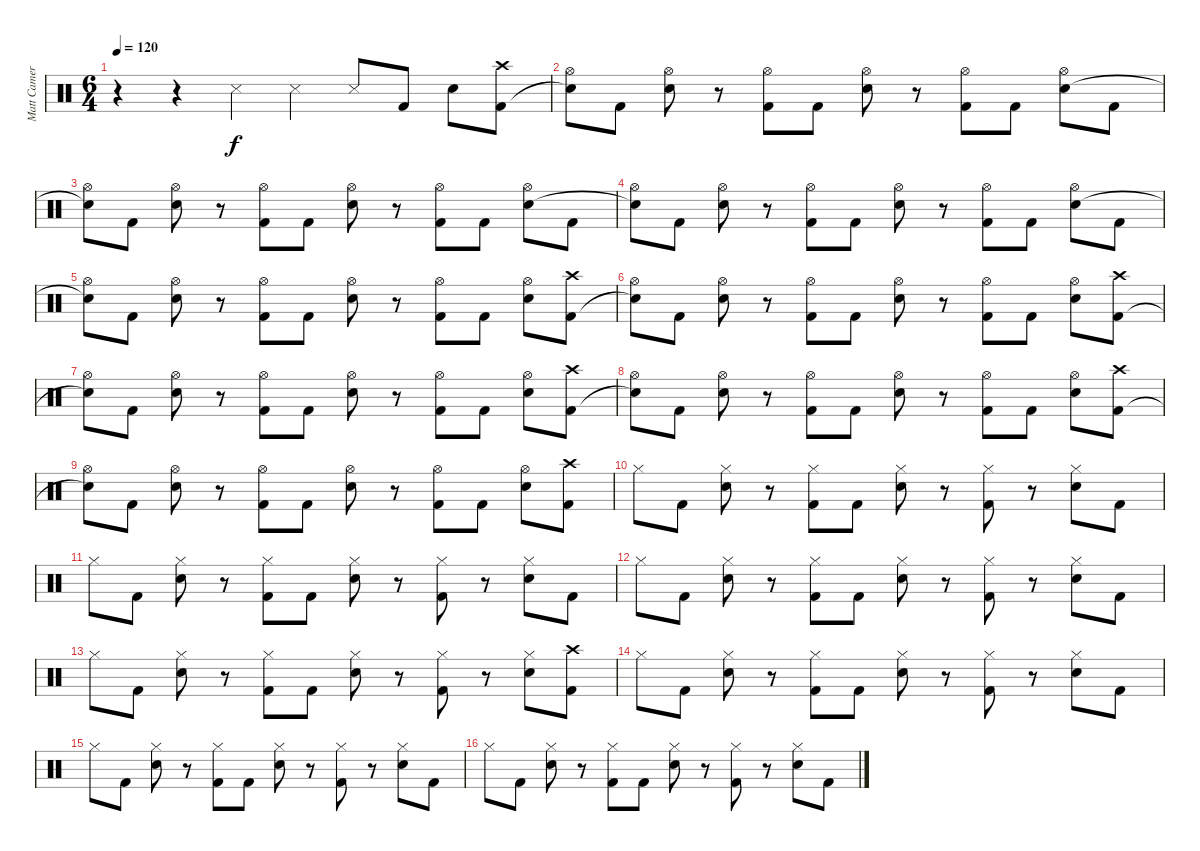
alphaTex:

\track ("Matt Cameron (Drums)" "Matt Camer") {instrument percussion}
\staff {score}
\articulation defaults
\ts (6 4)
\tempo 120
\clef neutral
\ks c
r.4{dy f} r.4 "Snare (side stick) 3".4 "Snare (side stick) 3".4 "Snare (side stick) 3".8 "Kick (hit) 2".8 "Electric Snare (hit)".8 ("Crash high (hit)" "Kick (hit) 2").8 |
("Hi-Hat (open)" "Snare (hit)"{t}).8 "Kick (hit) 2".8 ("Hi-Hat (open)" "Electric Snare (hit)").8 r.8 ("Hi-Hat (open)" "Kick (hit) 2").8 "Kick (hit) 2".8 ("Hi-Hat (open)" "Electric Snare (hit)").8 r.8 ("Hi-Hat (open)" "Kick (hit) 2").8 "Kick (hit) 2".8 ("Hi-Hat (open)" "Electric Snare (hit)").8 "Kick (hit) 2".8 |
("Hi-Hat (open)" "Snare (hit)"{t}).8 "Kick (hit) 2".8 ("Hi-Hat (open)" "Electric Snare (hit)").8 r.8 ("Hi-Hat (open)" "Kick (hit) 2").8 "Kick (hit) 2".8 ("Hi-Hat (open)" "Electric Snare (hit)").8 r.8 ("Hi-Hat (open)" "Kick (hit) 2").8 "Kick (hit) 2".8 ("Hi-Hat (open)" "Electric Snare (hit)").8 "Kick (hit) 2".8 |
("Hi-Hat (open)" "Snare (hit)"{t}).8 "Kick (hit) 2".8 ("Hi-Hat (open)" "Electric Snare (hit)").8 r.8 ("Hi-Hat (open)" "Kick (hit) 2").8 "Kick (hit) 2".8 ("Hi-Hat (open)" "Electric Snare (hit)").8 r.8 ("Hi-Hat (open)" "Kick (hit) 2").8 "Kick (hit) 2".8 ("Hi-Hat (open)" "Electric Snare (hit)").8 "Kick (hit) 2".8 |
("Hi-Hat (open)" "Snare (hit)"{t}).8 "Kick (hit) 2".8 ("Hi-Hat (open)" "Electric Snare (hit)").8 r.8 ("Hi-Hat (open)" "Kick (hit) 2").8 "Kick (hit) 2".8 ("Hi-Hat (open)" "Electric Snare (hit)").8 r.8 ("Hi-Hat (open)" "Kick (hit) 2").8 "Kick (hit) 2".8 ("Hi-Hat (open)" "Electric Snare (hit)").8 ("Crash high (hit)" "Kick (hit) 2").8 |
("Hi-Hat (open)" "Snare (hit)"{t}).8 "Kick (hit) 2".8 ("Hi-Hat (open)" "Electric Snare (hit)").8 r.8 ("Hi-Hat (open)" "Kick (hit) 2").8 "Kick (hit) 2".8 ("Hi-Hat (open)" "Electric Snare (hit)").8 r.8 ("Hi-Hat (open)" "Kick (hit) 2").8 "Kick (hit) 2".8 ("Hi-Hat (open)" "Electric Snare (hit)").8 ("Crash high (hit)" "Kick (hit) 2").8 |
("Hi-Hat (open)" "Snare (hit)"{t}).8 "Kick (hit) 2".8 ("Hi-Hat (open)" "Electric Snare (hit)").8 r.8 ("Hi-Hat (open)" "Kick (hit) 2").8 "Kick (hit) 2".8 ("Hi-Hat (open)" "Electric Snare (hit)").8 r.8 ("Hi-Hat (open)" "Kick (hit) 2").8 "Kick (hit) 2".8 ("Hi-Hat (open)" "Electric Snare (hit)").8 ("Crash high (hit)" "Kick (hit) 2").8 |
("Hi-Hat (open)" "Snare (hit)"{t}).8 "Kick (hit) 2".8 ("Hi-Hat (open)" "Electric Snare (hit)").8 r.8 ("Hi-Hat (open)" "Kick (hit) 2").8 "Kick (hit) 2".8 ("Hi-Hat (open)" "Electric Snare (hit)").8 r.8 ("Hi-Hat (open)" "Kick (hit) 2").8 "Kick (hit) 2".8 ("Hi-Hat (open)" "Electric Snare (hit)").8 ("Crash high (hit)" "Kick (hit) 2").8 |
("Hi-Hat (open)" "Snare (hit)"{t}).8 "Kick (hit) 2".8 ("Hi-Hat (open)" "Electric Snare (hit)").8 r.8 ("Hi-Hat (open)" "Kick (hit) 2").8 "Kick (hit) 2".8 ("Hi-Hat (open)" "Electric Snare (hit)").8 r.8 ("Hi-Hat (open)" "Kick (hit) 2").8 "Kick (hit) 2".8 ("Hi-Hat (open)" "Electric Snare (hit)").8 ("Crash high (hit)" "Kick (hit) 2").8 |
"Hi-Hat (closed)".8 "Kick (hit) 2".8 ("Hi-Hat (closed)" "Electric Snare (hit)").8 r.8 ("Hi-Hat (closed)" "Kick (hit) 2").8 "Kick (hit) 2".8 ("Hi-Hat (closed)" "Electric Snare (hit)").8 r.8 ("Hi-Hat (closed)" "Kick (hit) 2").8 r.8 ("Hi-Hat (closed)" "Electric Snare (hit)").8 "Kick (hit) 2".8 |
"Hi-Hat (closed)".8 "Kick (hit) 2".8 ("Hi-Hat (closed)" "Electric Snare (hit)").8 r.8 ("Hi-Hat (closed)" "Kick (hit) 2").8 "Kick (hit) 2".8 ("Hi-Hat (closed)" "Electric Snare (hit)").8 r.8 ("Hi-Hat (closed)" "Kick (hit) 2").8 r.8 ("Hi-Hat (closed)" "Electric Snare (hit)").8 "Kick (hit) 2".8 |
"Hi-Hat (closed)".8 "Kick (hit) 2".8 ("Hi-Hat (closed)" "Electric Snare (hit)").8 r.8 ("Hi-Hat (closed)" "Kick (hit) 2").8 "Kick (hit) 2".8 ("Hi-Hat (closed)" "Electric Snare (hit)").8 r.8 ("Hi-Hat (closed)" "Kick (hit) 2").8 r.8 ("Hi-Hat (closed)" "Electric Snare (hit)").8 "Kick (hit) 2".8 |
"Hi-Hat (closed)".8 "Kick (hit) 2".8 ("Hi-Hat (closed)" "Electric Snare (hit)").8 r.8 ("Hi-Hat (closed)" "Kick (hit) 2").8 "Kick (hit) 2".8 ("Hi-Hat (closed)" "Electric Snare (hit)").8 r.8 ("Hi-Hat (closed)" "Kick (hit) 2").8 r.8 ("Hi-Hat (closed)" "Electric Snare (hit)").8 ("Crash high (hit)" "Kick (hit) 2").8 |
"Hi-Hat (closed)".8 "Kick (hit) 2".8 ("Hi-Hat (closed)" "Electric Snare (hit)").8 r.8 ("Hi-Hat (closed)" "Kick (hit) 2").8 "Kick (hit) 2".8 ("Hi-Hat (closed)" "Electric Snare (hit)").8 r.8 ("Hi-Hat (closed)" "Kick (hit) 2").8 r.8 ("Hi-Hat (closed)" "Electric Snare (hit)").8 "Kick (hit) 2".8 |
"Hi-Hat (closed)".8 "Kick (hit) 2".8 ("Hi-Hat (closed)" "Electric Snare (hit)").8 r.8 ("Hi-Hat (closed)" "Kick (hit) 2").8 "Kick (hit) 2".8 ("Hi-Hat (closed)" "Electric Snare (hit)").8 r.8 ("Hi-Hat (closed)" "Kick (hit) 2").8 r.8 ("Hi-Hat (closed)" "Electric Snare (hit)").8 "Kick (hit) 2".8 |
"Hi-Hat (closed)".8 "Kick (hit) 2".8 ("Hi-Hat (closed)" "Electric Snare (hit)").8 r.8 ("Hi-Hat (closed)" "Kick (hit) 2").8 "Kick (hit) 2".8 ("Hi-Hat (closed)" "Electric Snare (hit)").8 r.8 ("Hi-Hat (closed)" "Kick (hit) 2").8 r.8 ("Hi-Hat (closed)" "Electric Snare (hit)").8 "Kick (hit) 2".8
